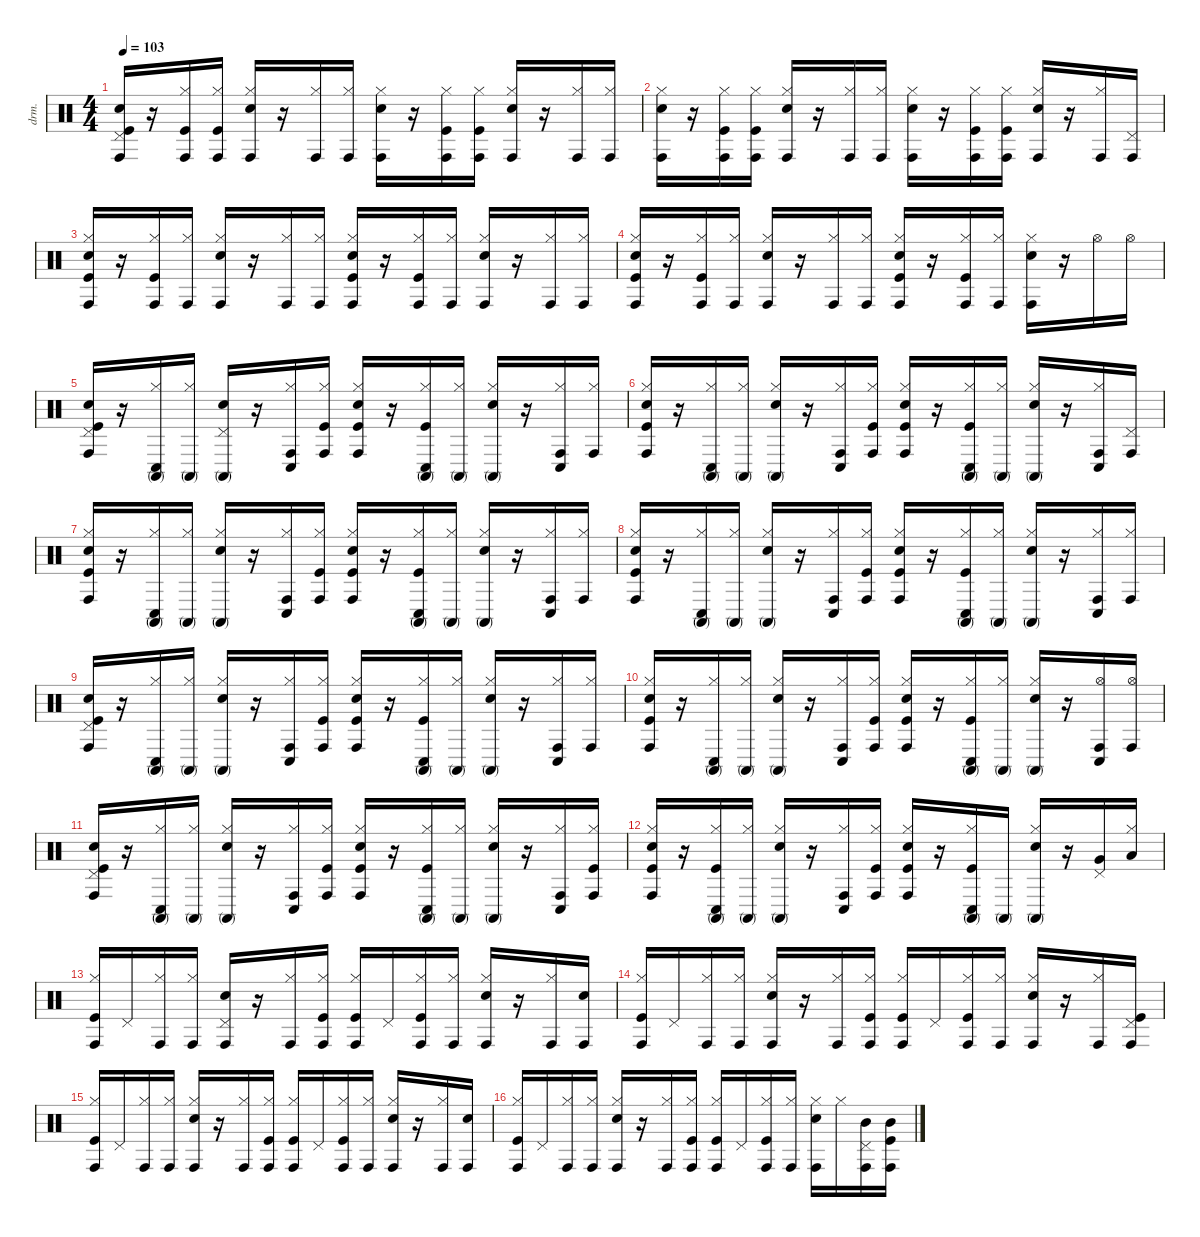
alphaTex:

\defaultSystemsLayout 4
\hideDynamics
\bracketExtendMode nobrackets
\otherSystemsTrackNameOrientation horizontal
\track ("drums" "drm.") {instrument percussion}
\staff {score}
\articulation defaults
\ts (4 4)
\tempo 103
\clef neutral
\ks c
("Snare (hit) 2" "Kick (hit)" "Pedal Hi-Hat (hit)" "Conga high (hit)").16{dy f} r.16 ("Kick (hit)" "Hi-Hat (closed)" "Conga high (hit)").16 ("Kick (hit)" "Hi-Hat (closed)" "Conga high (hit)").16 ("Snare (hit) 2" "Hi-Hat (closed)" "Conga high (hit)").16 r.16 ("Hi-Hat (closed)" "Conga high (hit)").16 ("Hi-Hat (closed)" "Conga high (hit)").16 ("Hi-Hat (closed)" "Conga high (hit)" "Snare (hit) 2").16 r.16 ("Kick (hit)" "Hi-Hat (closed)" "Conga high (hit)").16 ("Kick (hit)" "Hi-Hat (closed)" "Conga high (hit)").16 ("Snare (hit) 2" "Hi-Hat (closed)" "Conga high (hit)").16 r.16 ("Hi-Hat (closed)" "Conga high (hit)").16 ("Hi-Hat (closed)" "Conga high (hit)").16 |
("Hi-Hat (closed)" "Conga high (hit)" "Snare (hit) 2").16 r.16 ("Kick (hit)" "Hi-Hat (closed)" "Conga high (hit)").16 ("Kick (hit)" "Hi-Hat (closed)" "Conga high (hit)").16 ("Snare (hit) 2" "Hi-Hat (closed)" "Conga high (hit)").16 r.16 ("Hi-Hat (closed)" "Conga high (hit)").16 ("Hi-Hat (closed)" "Conga high (hit)").16 ("Snare (hit) 2" "Hi-Hat (closed)" "Conga high (hit)").16 r.16 ("Kick (hit)" "Hi-Hat (closed)" "Conga high (hit)").16 ("Kick (hit)" "Hi-Hat (closed)" "Conga high (hit)").16 ("Snare (hit) 2" "Hi-Hat (closed)" "Conga high (hit)").16 r.16 ("Hi-Hat (closed)" "Conga high (hit)").16 ("Pedal Hi-Hat (hit)" "Conga high (hit)").16 |
("Kick (hit)" "Snare (hit) 2" "Hi-Hat (closed)" "Conga high (hit)").16 r.16 ("Kick (hit)" "Hi-Hat (closed)" "Conga high (hit)").16 ("Hi-Hat (closed)" "Conga high (hit)").16 ("Snare (hit) 2" "Hi-Hat (closed)" "Conga high (hit)").16 r.16 ("Hi-Hat (closed)" "Conga high (hit)").16 ("Hi-Hat (closed)" "Conga high (hit)").16 ("Kick (hit)" "Snare (hit) 2" "Hi-Hat (closed)" "Conga high (hit)").16 r.16 ("Kick (hit)" "Hi-Hat (closed)" "Conga high (hit)").16 ("Hi-Hat (closed)" "Conga high (hit)").16 ("Snare (hit) 2" "Hi-Hat (closed)" "Conga high (hit)").16 r.16 ("Hi-Hat (closed)" "Conga high (hit)").16 ("Hi-Hat (closed)" "Conga high (hit)").16 |
("Kick (hit)" "Snare (hit) 2" "Hi-Hat (closed)" "Conga high (hit)").16 r.16 ("Kick (hit)" "Hi-Hat (closed)" "Conga high (hit)").16 ("Hi-Hat (closed)" "Conga high (hit)").16 ("Snare (hit) 2" "Hi-Hat (closed)" "Conga high (hit)").16 r.16 ("Hi-Hat (closed)" "Conga high (hit)").16 ("Hi-Hat (closed)" "Conga high (hit)").16 ("Kick (hit)" "Snare (hit) 2" "Hi-Hat (closed)" "Conga high (hit)").16 r.16 ("Kick (hit)" "Hi-Hat (closed)" "Conga high (hit)").16 ("Hi-Hat (closed)" "Conga high (hit)").16 ("Snare (hit) 2" "Hi-Hat (closed)" "Conga high (hit)").16 r.16 "Hi-Hat (open)".16 "Hi-Hat (open)".16 |
("Kick (hit)" "Snare (hit) 2" "Pedal Hi-Hat (hit)" "Conga high (hit)").16 r.16 ("Hi-Hat (closed)" "Conga high (mute)" "Conga low (hit)").16 ("Hi-Hat (closed)" "Conga high (mute)").16 ("Snare (hit) 2" "Conga high (mute)" "Pedal Hi-Hat (hit)").16 r.16 ("Hi-Hat (closed)" "Conga low (hit)" "Conga high (hit)").16 ("Kick (hit)" "Hi-Hat (closed)" "Conga high (hit)").16 ("Snare (hit) 2" "Kick (hit)" "Hi-Hat (closed)" "Conga high (hit)").16 r.16 ("Kick (hit)" "Conga low (hit)" "Conga high (mute)" "Hi-Hat (closed)").16 ("Conga high (mute)" "Hi-Hat (closed)").16 ("Conga high (mute)" "Snare (hit) 2" "Hi-Hat (closed)").16 r.16 ("Hi-Hat (closed)" "Conga low (hit)" "Conga high (hit)").16 ("Hi-Hat (closed)" "Conga high (hit)").16 |
("Kick (hit)" "Hi-Hat (closed)" "Conga high (hit)" "Snare (hit) 2").16 r.16 ("Conga low (hit)" "Conga high (mute)" "Hi-Hat (closed)").16 ("Conga high (mute)" "Hi-Hat (closed)").16 ("Snare (hit) 2" "Conga high (mute)" "Hi-Hat (closed)").16 r.16 ("Hi-Hat (closed)" "Conga low (hit)" "Conga high (hit)").16 ("Kick (hit)" "Hi-Hat (closed)" "Conga high (hit)").16 ("Kick (hit)" "Hi-Hat (closed)" "Conga high (hit)" "Snare (hit) 2").16 r.16 ("Kick (hit)" "Conga low (hit)" "Conga high (mute)" "Hi-Hat (closed)").16 ("Conga high (mute)" "Hi-Hat (closed)").16 ("Conga high (mute)" "Snare (hit) 2" "Hi-Hat (closed)").16 r.16 ("Hi-Hat (closed)" "Conga low (hit)" "Conga high (hit)").16 ("Pedal Hi-Hat (hit)" "Conga high (hit)").16 |
("Kick (hit)" "Hi-Hat (closed)" "Conga high (hit)" "Snare (hit) 2").16 r.16 ("Conga low (hit)" "Conga high (mute)" "Hi-Hat (closed)").16 ("Conga high (mute)" "Hi-Hat (closed)").16 ("Snare (hit) 2" "Conga high (mute)" "Hi-Hat (closed)").16 r.16 ("Hi-Hat (closed)" "Conga low (hit)" "Conga high (hit)").16 ("Kick (hit)" "Hi-Hat (closed)" "Conga high (hit)").16 ("Kick (hit)" "Hi-Hat (closed)" "Conga high (hit)" "Snare (hit) 2").16 r.16 ("Kick (hit)" "Conga low (hit)" "Conga high (mute)" "Hi-Hat (closed)").16 ("Conga high (mute)" "Hi-Hat (closed)").16 ("Snare (hit) 2" "Conga high (mute)" "Hi-Hat (closed)").16 r.16 ("Hi-Hat (closed)" "Conga low (hit)" "Conga high (hit)").16 ("Hi-Hat (closed)" "Conga high (hit)").16 |
("Kick (hit)" "Snare (hit) 2" "Hi-Hat (closed)" "Conga high (hit)").16 r.16 ("Conga low (hit)" "Conga high (mute)" "Hi-Hat (closed)").16 ("Conga high (mute)" "Hi-Hat (closed)").16 ("Snare (hit) 2" "Conga high (mute)" "Hi-Hat (closed)").16 r.16 ("Hi-Hat (closed)" "Conga low (hit)" "Conga high (hit)").16 ("Kick (hit)" "Hi-Hat (closed)" "Conga high (hit)").16 ("Kick (hit)" "Snare (hit) 2" "Hi-Hat (closed)" "Conga high (hit)").16 r.16 ("Kick (hit)" "Conga low (hit)" "Conga high (mute)" "Hi-Hat (closed)").16 ("Conga high (mute)" "Hi-Hat (closed)").16 ("Snare (hit) 2" "Conga high (mute)" "Hi-Hat (closed)").16 r.16 ("Conga low (hit)" "Conga high (hit)" "Hi-Hat (closed)").16 ("Conga high (hit)" "Hi-Hat (closed)").16 |
("Snare (hit) 2" "Kick (hit)" "Pedal Hi-Hat (hit)" "Conga high (hit)").16 r.16 ("Conga low (hit)" "Conga high (mute)" "Hi-Hat (closed)").16 ("Conga high (mute)" "Hi-Hat (closed)").16 ("Snare (hit) 2" "Conga high (mute)" "Hi-Hat (closed)").16 r.16 ("Hi-Hat (closed)" "Conga low (hit)" "Conga high (hit)").16 ("Kick (hit)" "Hi-Hat (closed)" "Conga high (hit)").16 ("Kick (hit)" "Hi-Hat (closed)" "Conga high (hit)" "Snare (hit) 2").16 r.16 ("Kick (hit)" "Conga low (hit)" "Conga high (mute)" "Hi-Hat (closed)").16 ("Conga high (mute)" "Hi-Hat (closed)").16 ("Conga high (mute)" "Snare (hit) 2" "Hi-Hat (closed)").16 r.16 ("Hi-Hat (closed)" "Conga low (hit)" "Conga high (hit)").16 ("Hi-Hat (closed)" "Conga high (hit)").16 |
("Kick (hit)" "Hi-Hat (closed)" "Conga high (hit)" "Snare (hit) 2").16 r.16 ("Conga low (hit)" "Conga high (mute)" "Hi-Hat (closed)").16 ("Conga high (mute)" "Hi-Hat (closed)").16 ("Conga high (mute)" "Snare (hit) 2" "Hi-Hat (closed)").16 r.16 ("Hi-Hat (closed)" "Conga low (hit)" "Conga high (hit)").16 ("Kick (hit)" "Hi-Hat (closed)" "Conga high (hit)").16 ("Snare (hit) 2" "Kick (hit)" "Hi-Hat (closed)" "Conga high (hit)").16 r.16 ("Kick (hit)" "Conga low (hit)" "Conga high (mute)" "Hi-Hat (closed)").16 ("Conga high (mute)" "Hi-Hat (closed)").16 ("Snare (hit) 2" "Conga high (mute)" "Hi-Hat (closed)").16 r.16 ("Hi-Hat (open)" "Conga low (hit)" "Conga high (hit)").16 ("Hi-Hat (open)" "Conga high (hit)").16 |
("Kick (hit)" "Snare (hit) 2" "Pedal Hi-Hat (hit)" "Conga high (hit)").16 r.16 ("Conga low (hit)" "Conga high (mute)" "Hi-Hat (closed)").16 ("Conga high (mute)" "Hi-Hat (closed)").16 ("Snare (hit) 2" "Conga high (mute)" "Hi-Hat (closed)").16 r.16 ("Hi-Hat (closed)" "Conga low (hit)" "Conga high (hit)").16 ("Kick (hit)" "Hi-Hat (closed)" "Conga high (hit)").16 ("Kick (hit)" "Snare (hit) 2" "Hi-Hat (closed)" "Conga high (hit)").16 r.16 ("Kick (hit)" "Conga low (hit)" "Conga high (mute)" "Hi-Hat (closed)").16 ("Conga high (mute)" "Hi-Hat (closed)").16 ("Snare (hit) 2" "Conga high (mute)" "Hi-Hat (closed)").16 r.16 ("Hi-Hat (closed)" "Conga low (hit)" "Conga high (hit)").16 ("Kick (hit)" "Hi-Hat (closed)" "Conga high (hit)").16 |
("Kick (hit)" "Snare (hit) 2" "Hi-Hat (closed)" "Conga high (hit)").16 r.16 ("Kick (hit)" "Conga low (hit)" "Conga high (mute)" "Hi-Hat (closed)").16 ("Conga high (mute)" "Hi-Hat (closed)").16 ("Snare (hit) 2" "Conga high (mute)" "Hi-Hat (closed)").16 r.16 ("Conga low (hit)" "Hi-Hat (closed)" "Conga high (hit)").16 ("Kick (hit)" "Hi-Hat (closed)" "Conga high (hit)").16 ("Kick (hit)" "Snare (hit) 2" "Hi-Hat (closed)" "Conga high (hit)").16 r.16 ("Conga low (hit)" "Conga high (mute)" "Kick (hit)" "Hi-Hat (closed)").16 "Conga high (mute)".16 ("Conga high (mute)" "Snare (hit) 2" "Hi-Hat (closed)").16 r.16 ("Very Low Tom (hit)" "Pedal Hi-Hat (hit)").16 ("Low Floor Tom (hit)" "Hi-Hat (closed)").16 |
("Kick (hit)" "Hi-Hat (closed)" "Conga high (hit)").16 "Pedal Hi-Hat (hit)".16 ("Hi-Hat (closed)" "Conga high (hit)").16 ("Hi-Hat (closed)" "Conga high (hit)").16 ("Snare (hit) 2" "Pedal Hi-Hat (hit)" "Conga high (hit)").16 r.16 ("Hi-Hat (closed)" "Conga high (hit)").16 ("Kick (hit)" "Hi-Hat (closed)" "Conga high (hit)").16 ("Kick (hit)" "Hi-Hat (closed)" "Conga high (hit)").16 "Pedal Hi-Hat (hit)".16 ("Kick (hit)" "Hi-Hat (closed)" "Conga high (hit)").16 ("Hi-Hat (closed)" "Conga high (hit)").16 ("Snare (hit) 2" "Hi-Hat (closed)" "Conga high (hit)").16 r.16 ("Hi-Hat (closed)" "Conga high (hit)").16 ("Conga high (hit)" "Snare (hit) 2").16 |
("Kick (hit)" "Hi-Hat (closed)" "Conga high (hit)").16 "Pedal Hi-Hat (hit)".16 ("Hi-Hat (closed)" "Conga high (hit)").16 ("Hi-Hat (closed)" "Conga high (hit)").16 ("Snare (hit) 2" "Hi-Hat (closed)" "Conga high (hit)").16 r.16 ("Hi-Hat (closed)" "Conga high (hit)").16 ("Kick (hit)" "Hi-Hat (closed)" "Conga high (hit)").16 ("Kick (hit)" "Hi-Hat (closed)" "Conga high (hit)").16 "Pedal Hi-Hat (hit)".16 ("Kick (hit)" "Hi-Hat (closed)" "Conga high (hit)").16 ("Hi-Hat (closed)" "Conga high (hit)").16 ("Snare (hit) 2" "Hi-Hat (closed)" "Conga high (hit)").16 r.16 ("Hi-Hat (closed)" "Conga high (hit)").16 ("Kick (hit)" "Pedal Hi-Hat (hit)" "Conga high (hit)").16 |
("Kick (hit)" "Hi-Hat (closed)" "Conga high (hit)").16 "Pedal Hi-Hat (hit)".16 ("Hi-Hat (closed)" "Conga high (hit)").16 ("Hi-Hat (closed)" "Conga high (hit)").16 ("Snare (hit) 2" "Hi-Hat (closed)" "Conga high (hit)").16 r.16 ("Hi-Hat (closed)" "Conga high (hit)").16 ("Kick (hit)" "Hi-Hat (closed)" "Conga high (hit)").16 ("Kick (hit)" "Hi-Hat (closed)" "Conga high (hit)").16 "Pedal Hi-Hat (hit)".16 ("Kick (hit)" "Hi-Hat (closed)" "Conga high (hit)").16 ("Hi-Hat (closed)" "Conga high (hit)").16 ("Snare (hit) 2" "Hi-Hat (closed)" "Conga high (hit)").16 r.16 ("Hi-Hat (closed)" "Conga high (hit)").16 ("Conga high (hit)" "Snare (hit) 2").16 |
("Kick (hit)" "Hi-Hat (closed)" "Conga high (hit)").16 "Pedal Hi-Hat (hit)".16 ("Hi-Hat (closed)" "Conga high (hit)").16 ("Hi-Hat (closed)" "Conga high (hit)").16 ("Snare (hit) 2" "Hi-Hat (closed)" "Conga high (hit)").16 r.16 ("Hi-Hat (closed)" "Conga high (hit)").16 ("Kick (hit)" "Hi-Hat (closed)" "Conga high (hit)").16 ("Kick (hit)" "Hi-Hat (closed)" "Conga high (hit)").16 "Pedal Hi-Hat (hit)".16 ("Kick (hit)" "Hi-Hat (closed)" "Conga high (hit)").16 ("Hi-Hat (closed)" "Conga high (hit)").16 ("Snare (hit) 2" "Hi-Hat (closed)" "Conga high (hit)").16 "Hi-Hat (closed)".16 ("Conga high (hit)" "Pedal Hi-Hat (hit)" "Mid Tom (hit)").16 ("Conga high (hit)" "Kick (hit)" "Mid Tom (hit)").16
